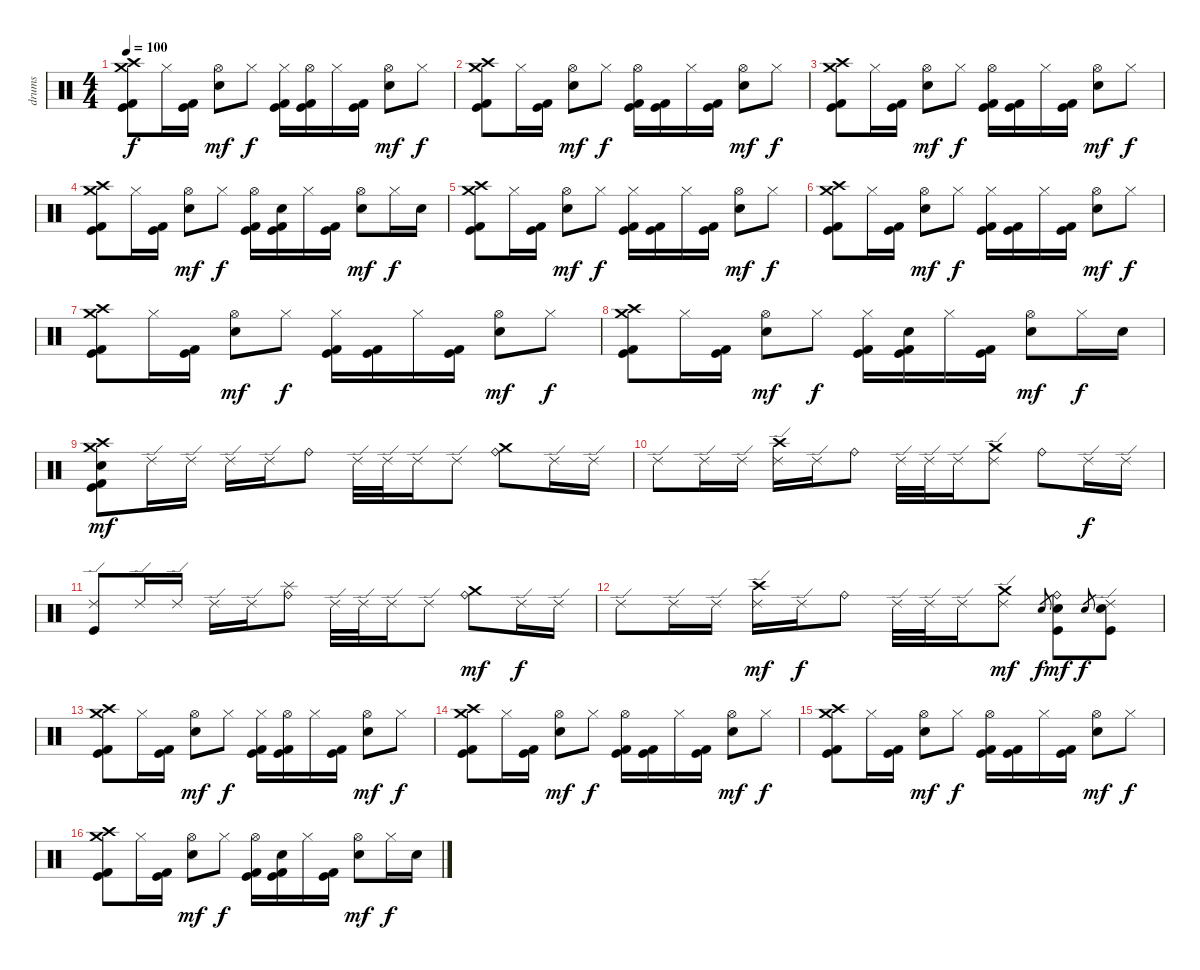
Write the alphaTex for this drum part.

\track ("drums" "drums") {instrument percussion}
\staff {score}
\articulation defaults
\ts (4 4)
\tempo 100
\clef neutral
\ks c
("Crash high (hit)" "Crash medium (hit)" "Kick (hit) 2" "Kick (hit)").8{dy f} "Hi-Hat (closed)".16 ("Kick (hit) 2" "Kick (hit)").16 ("Hi-Hat (open)" "Electric Snare (hit)").8{dy mf} "Hi-Hat (closed)".8{dy f} ("Hi-Hat (closed)" "Kick (hit) 2" "Kick (hit)").16 ("Hi-Hat (open)" "Kick (hit) 2" "Kick (hit)").16 "Hi-Hat (closed)".16 ("Kick (hit) 2" "Kick (hit)").16 ("Hi-Hat (open)" "Electric Snare (hit)").8{dy mf} "Hi-Hat (closed)".8{dy f} |
("Crash high (hit)" "Crash medium (hit)" "Kick (hit) 2" "Kick (hit)").8 "Hi-Hat (closed)".16 ("Kick (hit) 2" "Kick (hit)").16 ("Hi-Hat (open)" "Electric Snare (hit)").8{dy mf} "Hi-Hat (closed)".8{dy f} ("Hi-Hat (open)" "Kick (hit) 2" "Kick (hit)").16 ("Kick (hit) 2" "Kick (hit)").16 "Hi-Hat (closed)".16 ("Kick (hit) 2" "Kick (hit)").16 ("Hi-Hat (open)" "Electric Snare (hit)").8{dy mf} "Hi-Hat (closed)".8{dy f} |
("Crash high (hit)" "Crash medium (hit)" "Kick (hit) 2" "Kick (hit)").8 "Hi-Hat (closed)".16 ("Kick (hit) 2" "Kick (hit)").16 ("Hi-Hat (open)" "Electric Snare (hit)").8{dy mf} "Hi-Hat (closed)".8{dy f} ("Hi-Hat (open)" "Kick (hit) 2" "Kick (hit)").16 ("Kick (hit) 2" "Kick (hit)").16 "Hi-Hat (closed)".16 ("Kick (hit) 2" "Kick (hit)").16 ("Hi-Hat (open)" "Electric Snare (hit)").8{dy mf} "Hi-Hat (closed)".8{dy f} |
("Crash high (hit)" "Crash medium (hit)" "Kick (hit) 2" "Kick (hit)").8 "Hi-Hat (closed)".16 ("Kick (hit) 2" "Kick (hit)").16 ("Hi-Hat (open)" "Electric Snare (hit)").8{dy mf} "Hi-Hat (closed)".8{dy f} ("Hi-Hat (open)" "Kick (hit) 2" "Kick (hit)").16 ("Electric Snare (hit)" "Kick (hit) 2" "Kick (hit)").16 "Hi-Hat (closed)".16 ("Kick (hit) 2" "Kick (hit)").16 ("Hi-Hat (open)" "Electric Snare (hit)").8{dy mf} "Hi-Hat (closed)".16{dy f} "Electric Snare (hit)".16 |
("Crash high (hit)" "Crash medium (hit)" "Kick (hit) 2" "Kick (hit)").8 "Hi-Hat (closed)".16 ("Kick (hit) 2" "Kick (hit)").16 ("Hi-Hat (open)" "Electric Snare (hit)").8{dy mf} "Hi-Hat (closed)".8{dy f} ("Hi-Hat (closed)" "Kick (hit) 2" "Kick (hit)").16 ("Kick (hit) 2" "Kick (hit)").16 "Hi-Hat (closed)".16 ("Kick (hit) 2" "Kick (hit)").16 ("Hi-Hat (open)" "Electric Snare (hit)").8{dy mf} "Hi-Hat (closed)".8{dy f} |
("Crash high (hit)" "Crash medium (hit)" "Kick (hit) 2" "Kick (hit)").8 "Hi-Hat (closed)".16 ("Kick (hit) 2" "Kick (hit)").16 ("Hi-Hat (open)" "Electric Snare (hit)").8{dy mf} "Hi-Hat (closed)".8{dy f} ("Hi-Hat (closed)" "Kick (hit) 2" "Kick (hit)").16 ("Kick (hit) 2" "Kick (hit)").16 "Hi-Hat (closed)".16 ("Kick (hit) 2" "Kick (hit)").16 ("Hi-Hat (open)" "Electric Snare (hit)").8{dy mf} "Hi-Hat (closed)".8{dy f} |
("Crash high (hit)" "Crash medium (hit)" "Kick (hit) 2" "Kick (hit)").8 "Hi-Hat (closed)".16 ("Kick (hit) 2" "Kick (hit)").16 ("Hi-Hat (open)" "Electric Snare (hit)").8{dy mf} "Hi-Hat (closed)".8{dy f} ("Hi-Hat (closed)" "Kick (hit) 2" "Kick (hit)").16 ("Kick (hit) 2" "Kick (hit)").16 "Hi-Hat (closed)".16 ("Kick (hit) 2" "Kick (hit)").16 ("Hi-Hat (open)" "Electric Snare (hit)").8{dy mf} "Hi-Hat (closed)".8{dy f} |
("Crash high (hit)" "Crash medium (hit)" "Kick (hit) 2" "Kick (hit)").8 "Hi-Hat (closed)".16 ("Kick (hit) 2" "Kick (hit)").16 ("Hi-Hat (open)" "Electric Snare (hit)").8{dy mf} "Hi-Hat (closed)".8{dy f} ("Hi-Hat (closed)" "Kick (hit) 2" "Kick (hit)").16 ("Electric Snare (hit)" "Kick (hit) 2" "Kick (hit)").16 "Hi-Hat (closed)".16 ("Kick (hit) 2" "Kick (hit)").16 ("Hi-Hat (open)" "Electric Snare (hit)").8{dy mf} "Hi-Hat (closed)".16{dy f} "Electric Snare (hit)".16 |
("Crash medium (hit)" "Crash high (hit)" "Electric Snare (hit)" "Kick (hit) 2" "Kick (hit)").8{dy mf} "Ride (edge) 2".16 "Ride (edge) 2".16 "Ride (edge) 2".16 "Ride (edge) 2".16 "Ride (bell)".8 "Ride (edge) 2".32 "Ride (edge) 2".32 "Ride (edge) 2".16 "Ride (edge) 2".8 ("Ride (bell)" "Crash medium (hit)").8 "Ride (edge) 2".16 "Ride (edge) 2".16 |
"Ride (edge) 2".8 "Ride (edge) 2".16 "Ride (edge) 2".16 ("Ride (edge) 2" "Crash high (hit)").16 "Ride (edge) 2".16 "Ride (bell)".8 "Ride (edge) 2".32 "Ride (edge) 2".32 "Ride (edge) 2".16 ("Ride (edge) 2" "Crash medium (hit)").8 "Ride (bell)".8 "Ride (edge) 2".16{dy f} "Ride (edge) 2".16 |
("Ride (edge) 2" "Kick (hit)").8 "Ride (edge) 2".16 "Ride (edge) 2".16 "Ride (edge) 2".16 "Ride (edge) 2".16 ("Ride (bell)" "Splash (hit)").8 "Ride (edge) 2".32 "Ride (edge) 2".32 "Ride (edge) 2".16 "Ride (edge) 2".8 ("Ride (bell)" "Crash medium (hit)").8{dy mf} "Ride (edge) 2".16{dy f} "Ride (edge) 2".16 |
"Ride (edge) 2".8 "Ride (edge) 2".16 "Ride (edge) 2".16 ("Ride (edge) 2" "Crash high (hit)").16{dy mf} "Ride (edge) 2".16{dy f} "Ride (bell)".8 "Ride (edge) 2".32 "Ride (edge) 2".32 "Ride (edge) 2".16 ("Ride (edge) 2" "Crash medium (hit)").8{dy mf} "Electric Snare (hit)".8{gr dy f} ("Ride (bell)" "Electric Snare (hit)" "Kick (hit)").8{dy mf} "Electric Snare (hit)".8{gr dy f} ("Ride (edge) 2" "Electric Snare (hit)" "Kick (hit)").8 |
("Crash high (hit)" "Crash medium (hit)" "Kick (hit) 2" "Kick (hit)").8 "Hi-Hat (closed)".16 ("Kick (hit) 2" "Kick (hit)").16 ("Hi-Hat (open)" "Electric Snare (hit)").8{dy mf} "Hi-Hat (closed)".8{dy f} ("Hi-Hat (closed)" "Kick (hit) 2" "Kick (hit)").16 ("Hi-Hat (open)" "Kick (hit) 2" "Kick (hit)").16 "Hi-Hat (closed)".16 ("Kick (hit) 2" "Kick (hit)").16 ("Hi-Hat (open)" "Electric Snare (hit)").8{dy mf} "Hi-Hat (closed)".8{dy f} |
("Crash high (hit)" "Crash medium (hit)" "Kick (hit) 2" "Kick (hit)").8 "Hi-Hat (closed)".16 ("Kick (hit) 2" "Kick (hit)").16 ("Hi-Hat (open)" "Electric Snare (hit)").8{dy mf} "Hi-Hat (closed)".8{dy f} ("Hi-Hat (open)" "Kick (hit) 2" "Kick (hit)").16 ("Kick (hit) 2" "Kick (hit)").16 "Hi-Hat (closed)".16 ("Kick (hit) 2" "Kick (hit)").16 ("Hi-Hat (open)" "Electric Snare (hit)").8{dy mf} "Hi-Hat (closed)".8{dy f} |
("Crash high (hit)" "Crash medium (hit)" "Kick (hit) 2" "Kick (hit)").8 "Hi-Hat (closed)".16 ("Kick (hit) 2" "Kick (hit)").16 ("Hi-Hat (open)" "Electric Snare (hit)").8{dy mf} "Hi-Hat (closed)".8{dy f} ("Hi-Hat (open)" "Kick (hit) 2" "Kick (hit)").16 ("Kick (hit) 2" "Kick (hit)").16 "Hi-Hat (closed)".16 ("Kick (hit) 2" "Kick (hit)").16 ("Hi-Hat (open)" "Electric Snare (hit)").8{dy mf} "Hi-Hat (closed)".8{dy f} |
("Crash high (hit)" "Crash medium (hit)" "Kick (hit) 2" "Kick (hit)").8 "Hi-Hat (closed)".16 ("Kick (hit) 2" "Kick (hit)").16 ("Hi-Hat (open)" "Electric Snare (hit)").8{dy mf} "Hi-Hat (closed)".8{dy f} ("Hi-Hat (open)" "Kick (hit) 2" "Kick (hit)").16 ("Electric Snare (hit)" "Kick (hit) 2" "Kick (hit)").16 "Hi-Hat (closed)".16 ("Kick (hit) 2" "Kick (hit)").16 ("Hi-Hat (open)" "Electric Snare (hit)").8{dy mf} "Hi-Hat (closed)".16{dy f} "Electric Snare (hit)".16
